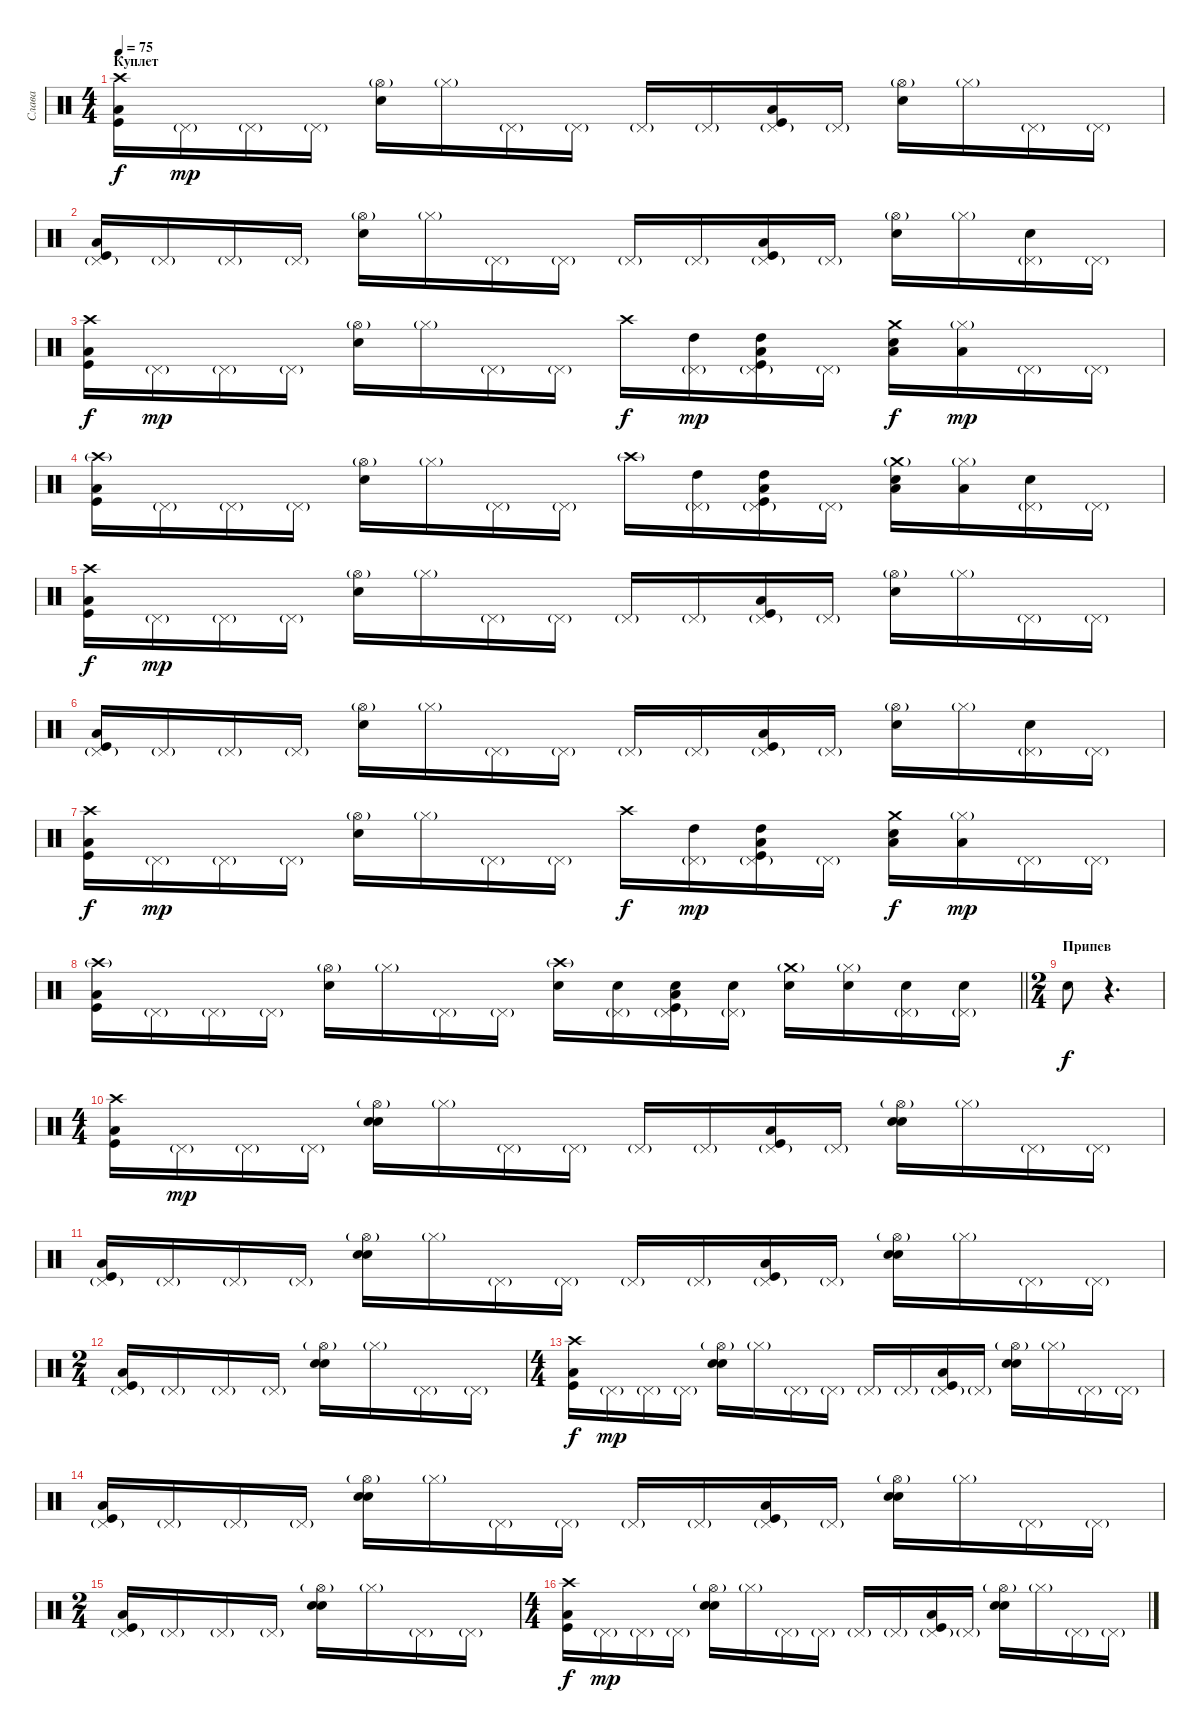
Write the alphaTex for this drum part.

\track ("Слава" "Слава") {instrument percussion}
\staff {score}
\articulation defaults
\ts (4 4)
\section ("" "Куплет")
\tempo 75
\clef neutral
\ks c
("Crash high (hit)" "Low Tom (hit)" "Kick (hit)").16{dy f} "Pedal Hi-Hat (hit)"{g}.16{dy mp} "Pedal Hi-Hat (hit)"{g}.16 "Pedal Hi-Hat (hit)"{g}.16 ("Hi-Hat (open)"{g} "Snare (hit) 2").16 "Hi-Hat (closed)"{g}.16 "Pedal Hi-Hat (hit)"{g}.16 "Pedal Hi-Hat (hit)"{g}.16 "Pedal Hi-Hat (hit)"{g}.16 "Pedal Hi-Hat (hit)"{g}.16 ("Pedal Hi-Hat (hit)"{g} "Low Tom (hit)" "Kick (hit)").16 "Pedal Hi-Hat (hit)"{g}.16 ("Hi-Hat (open)"{g} "Snare (hit) 2").16 "Hi-Hat (closed)"{g}.16 "Pedal Hi-Hat (hit)"{g}.16 "Pedal Hi-Hat (hit)"{g}.16 |
("Pedal Hi-Hat (hit)"{g} "Low Tom (hit)" "Kick (hit)").16 "Pedal Hi-Hat (hit)"{g}.16 "Pedal Hi-Hat (hit)"{g}.16 "Pedal Hi-Hat (hit)"{g}.16 ("Hi-Hat (open)"{g} "Snare (hit) 2").16 "Hi-Hat (closed)"{g}.16 "Pedal Hi-Hat (hit)"{g}.16 "Pedal Hi-Hat (hit)"{g}.16 "Pedal Hi-Hat (hit)"{g}.16 "Pedal Hi-Hat (hit)"{g}.16 ("Pedal Hi-Hat (hit)"{g} "Low Tom (hit)" "Kick (hit)").16 "Pedal Hi-Hat (hit)"{g}.16 ("Hi-Hat (open)"{g} "Snare (hit) 2").16 "Hi-Hat (closed)"{g}.16 ("Pedal Hi-Hat (hit)"{g} "Snare (hit) 2").16 "Pedal Hi-Hat (hit)"{g}.16 |
("Crash high (hit)" "Low Tom (hit)" "Kick (hit)").16{dy f} "Pedal Hi-Hat (hit)"{g}.16{dy mp} "Pedal Hi-Hat (hit)"{g}.16 "Pedal Hi-Hat (hit)"{g}.16 ("Hi-Hat (open)"{g} "Snare (hit) 2").16 "Hi-Hat (closed)"{g}.16 "Pedal Hi-Hat (hit)"{g}.16 "Pedal Hi-Hat (hit)"{g}.16 "Crash high (hit)".16{dy f} ("Pedal Hi-Hat (hit)"{g} "High Tom (hit)").16{dy mp} ("Pedal Hi-Hat (hit)"{g} "High Tom (hit)" "Low Tom (hit)" "Kick (hit)").16 "Pedal Hi-Hat (hit)"{g}.16 ("Crash medium (hit)" "Low Tom (hit)" "Snare (hit) 2").16{dy f} ("Hi-Hat (closed)"{g} "Low Tom (hit)").16{dy mp} "Pedal Hi-Hat (hit)"{g}.16 "Pedal Hi-Hat (hit)"{g}.16 |
("Crash high (hit)"{g} "Low Tom (hit)" "Kick (hit)").16 "Pedal Hi-Hat (hit)"{g}.16 "Pedal Hi-Hat (hit)"{g}.16 "Pedal Hi-Hat (hit)"{g}.16 ("Hi-Hat (open)"{g} "Snare (hit) 2").16 "Hi-Hat (closed)"{g}.16 "Pedal Hi-Hat (hit)"{g}.16 "Pedal Hi-Hat (hit)"{g}.16 "Crash high (hit)"{g}.16 ("Pedal Hi-Hat (hit)"{g} "High Tom (hit)").16 ("Pedal Hi-Hat (hit)"{g} "High Tom (hit)" "Low Tom (hit)" "Kick (hit)").16 "Pedal Hi-Hat (hit)"{g}.16 ("Crash medium (hit)"{g} "Low Tom (hit)" "Snare (hit) 2").16 ("Hi-Hat (closed)"{g} "Low Tom (hit)").16 ("Pedal Hi-Hat (hit)"{g} "Snare (hit) 2").16 "Pedal Hi-Hat (hit)"{g}.16 |
("Crash high (hit)" "Low Tom (hit)" "Kick (hit)").16{dy f} "Pedal Hi-Hat (hit)"{g}.16{dy mp} "Pedal Hi-Hat (hit)"{g}.16 "Pedal Hi-Hat (hit)"{g}.16 ("Hi-Hat (open)"{g} "Snare (hit) 2").16 "Hi-Hat (closed)"{g}.16 "Pedal Hi-Hat (hit)"{g}.16 "Pedal Hi-Hat (hit)"{g}.16 "Pedal Hi-Hat (hit)"{g}.16 "Pedal Hi-Hat (hit)"{g}.16 ("Pedal Hi-Hat (hit)"{g} "Low Tom (hit)" "Kick (hit)").16 "Pedal Hi-Hat (hit)"{g}.16 ("Hi-Hat (open)"{g} "Snare (hit) 2").16 "Hi-Hat (closed)"{g}.16 "Pedal Hi-Hat (hit)"{g}.16 "Pedal Hi-Hat (hit)"{g}.16 |
("Pedal Hi-Hat (hit)"{g} "Low Tom (hit)" "Kick (hit)").16 "Pedal Hi-Hat (hit)"{g}.16 "Pedal Hi-Hat (hit)"{g}.16 "Pedal Hi-Hat (hit)"{g}.16 ("Hi-Hat (open)"{g} "Snare (hit) 2").16 "Hi-Hat (closed)"{g}.16 "Pedal Hi-Hat (hit)"{g}.16 "Pedal Hi-Hat (hit)"{g}.16 "Pedal Hi-Hat (hit)"{g}.16 "Pedal Hi-Hat (hit)"{g}.16 ("Pedal Hi-Hat (hit)"{g} "Low Tom (hit)" "Kick (hit)").16 "Pedal Hi-Hat (hit)"{g}.16 ("Hi-Hat (open)"{g} "Snare (hit) 2").16 "Hi-Hat (closed)"{g}.16 ("Pedal Hi-Hat (hit)"{g} "Snare (hit) 2").16 "Pedal Hi-Hat (hit)"{g}.16 |
("Crash high (hit)" "Low Tom (hit)" "Kick (hit)").16{dy f} "Pedal Hi-Hat (hit)"{g}.16{dy mp} "Pedal Hi-Hat (hit)"{g}.16 "Pedal Hi-Hat (hit)"{g}.16 ("Hi-Hat (open)"{g} "Snare (hit) 2").16 "Hi-Hat (closed)"{g}.16 "Pedal Hi-Hat (hit)"{g}.16 "Pedal Hi-Hat (hit)"{g}.16 "Crash high (hit)".16{dy f} ("Pedal Hi-Hat (hit)"{g} "High Tom (hit)").16{dy mp} ("Pedal Hi-Hat (hit)"{g} "High Tom (hit)" "Low Tom (hit)" "Kick (hit)").16 "Pedal Hi-Hat (hit)"{g}.16 ("Crash medium (hit)" "Low Tom (hit)" "Snare (hit) 2").16{dy f} ("Hi-Hat (closed)"{g} "Low Tom (hit)").16{dy mp} "Pedal Hi-Hat (hit)"{g}.16 "Pedal Hi-Hat (hit)"{g}.16 |
\barLineRight lightlight
("Crash high (hit)"{g} "Low Tom (hit)" "Kick (hit)").16 "Pedal Hi-Hat (hit)"{g}.16 "Pedal Hi-Hat (hit)"{g}.16 "Pedal Hi-Hat (hit)"{g}.16 ("Hi-Hat (open)"{g} "Snare (hit) 2").16 "Hi-Hat (closed)"{g}.16 "Pedal Hi-Hat (hit)"{g}.16 "Pedal Hi-Hat (hit)"{g}.16 ("Crash high (hit)"{g} "Snare (hit) 2").16 ("Pedal Hi-Hat (hit)"{g} "Snare (hit) 2").16 ("Pedal Hi-Hat (hit)"{g} "Snare (hit) 2" "Low Tom (hit)" "Kick (hit)").16 ("Pedal Hi-Hat (hit)"{g} "Snare (hit) 2").16 ("Crash medium (hit)"{g} "Electric Snare (hit)").16 ("Hi-Hat (closed)"{g} "Electric Snare (hit)").16 ("Pedal Hi-Hat (hit)"{g} "Electric Snare (hit)").16 ("Pedal Hi-Hat (hit)"{g} "Electric Snare (hit)").16 |
\ts (2 4)
\section ("" "Припев")
"Electric Snare (hit)".8{dy f} r.4{d} |
\ts (4 4)
("Crash high (hit)" "Low Tom (hit)" "Kick (hit)").16 "Pedal Hi-Hat (hit)"{g}.16{dy mp} "Pedal Hi-Hat (hit)"{g}.16 "Pedal Hi-Hat (hit)"{g}.16 ("Hi-Hat (open)"{g} "Electric Snare (hit)" "Snare (hit) 2").16 "Hi-Hat (closed)"{g}.16 "Pedal Hi-Hat (hit)"{g}.16 "Pedal Hi-Hat (hit)"{g}.16 "Pedal Hi-Hat (hit)"{g}.16 "Pedal Hi-Hat (hit)"{g}.16 ("Pedal Hi-Hat (hit)"{g} "Low Tom (hit)" "Kick (hit)").16 "Pedal Hi-Hat (hit)"{g}.16 ("Hi-Hat (open)"{g} "Electric Snare (hit)" "Snare (hit) 2").16 "Hi-Hat (closed)"{g}.16 "Pedal Hi-Hat (hit)"{g}.16 "Pedal Hi-Hat (hit)"{g}.16 |
("Pedal Hi-Hat (hit)"{g} "Low Tom (hit)" "Kick (hit)").16 "Pedal Hi-Hat (hit)"{g}.16 "Pedal Hi-Hat (hit)"{g}.16 "Pedal Hi-Hat (hit)"{g}.16 ("Hi-Hat (open)"{g} "Electric Snare (hit)" "Snare (hit) 2").16 "Hi-Hat (closed)"{g}.16 "Pedal Hi-Hat (hit)"{g}.16 "Pedal Hi-Hat (hit)"{g}.16 "Pedal Hi-Hat (hit)"{g}.16 "Pedal Hi-Hat (hit)"{g}.16 ("Pedal Hi-Hat (hit)"{g} "Low Tom (hit)" "Kick (hit)").16 "Pedal Hi-Hat (hit)"{g}.16 ("Hi-Hat (open)"{g} "Electric Snare (hit)" "Snare (hit) 2").16 "Hi-Hat (closed)"{g}.16 "Pedal Hi-Hat (hit)"{g}.16 "Pedal Hi-Hat (hit)"{g}.16 |
\ts (2 4)
("Pedal Hi-Hat (hit)"{g} "Low Tom (hit)" "Kick (hit)").16 "Pedal Hi-Hat (hit)"{g}.16 "Pedal Hi-Hat (hit)"{g}.16 "Pedal Hi-Hat (hit)"{g}.16 ("Hi-Hat (open)"{g} "Electric Snare (hit)" "Snare (hit) 2").16 "Hi-Hat (closed)"{g}.16 "Pedal Hi-Hat (hit)"{g}.16 "Pedal Hi-Hat (hit)"{g}.16 |
\ts (4 4)
("Crash high (hit)" "Low Tom (hit)" "Kick (hit)").16{dy f} "Pedal Hi-Hat (hit)"{g}.16{dy mp} "Pedal Hi-Hat (hit)"{g}.16 "Pedal Hi-Hat (hit)"{g}.16 ("Hi-Hat (open)"{g} "Electric Snare (hit)" "Snare (hit) 2").16 "Hi-Hat (closed)"{g}.16 "Pedal Hi-Hat (hit)"{g}.16 "Pedal Hi-Hat (hit)"{g}.16 "Pedal Hi-Hat (hit)"{g}.16 "Pedal Hi-Hat (hit)"{g}.16 ("Pedal Hi-Hat (hit)"{g} "Low Tom (hit)" "Kick (hit)").16 "Pedal Hi-Hat (hit)"{g}.16 ("Hi-Hat (open)"{g} "Electric Snare (hit)" "Snare (hit) 2").16 "Hi-Hat (closed)"{g}.16 "Pedal Hi-Hat (hit)"{g}.16 "Pedal Hi-Hat (hit)"{g}.16 |
("Pedal Hi-Hat (hit)"{g} "Low Tom (hit)" "Kick (hit)").16 "Pedal Hi-Hat (hit)"{g}.16 "Pedal Hi-Hat (hit)"{g}.16 "Pedal Hi-Hat (hit)"{g}.16 ("Hi-Hat (open)"{g} "Electric Snare (hit)" "Snare (hit) 2").16 "Hi-Hat (closed)"{g}.16 "Pedal Hi-Hat (hit)"{g}.16 "Pedal Hi-Hat (hit)"{g}.16 "Pedal Hi-Hat (hit)"{g}.16 "Pedal Hi-Hat (hit)"{g}.16 ("Pedal Hi-Hat (hit)"{g} "Low Tom (hit)" "Kick (hit)").16 "Pedal Hi-Hat (hit)"{g}.16 ("Hi-Hat (open)"{g} "Electric Snare (hit)" "Snare (hit) 2").16 "Hi-Hat (closed)"{g}.16 "Pedal Hi-Hat (hit)"{g}.16 "Pedal Hi-Hat (hit)"{g}.16 |
\ts (2 4)
("Pedal Hi-Hat (hit)"{g} "Low Tom (hit)" "Kick (hit)").16 "Pedal Hi-Hat (hit)"{g}.16 "Pedal Hi-Hat (hit)"{g}.16 "Pedal Hi-Hat (hit)"{g}.16 ("Hi-Hat (open)"{g} "Electric Snare (hit)" "Snare (hit) 2").16 "Hi-Hat (closed)"{g}.16 "Pedal Hi-Hat (hit)"{g}.16 "Pedal Hi-Hat (hit)"{g}.16 |
\ts (4 4)
("Crash high (hit)" "Low Tom (hit)" "Kick (hit)").16{dy f} "Pedal Hi-Hat (hit)"{g}.16{dy mp} "Pedal Hi-Hat (hit)"{g}.16 "Pedal Hi-Hat (hit)"{g}.16 ("Hi-Hat (open)"{g} "Electric Snare (hit)" "Snare (hit) 2").16 "Hi-Hat (closed)"{g}.16 "Pedal Hi-Hat (hit)"{g}.16 "Pedal Hi-Hat (hit)"{g}.16 "Pedal Hi-Hat (hit)"{g}.16 "Pedal Hi-Hat (hit)"{g}.16 ("Pedal Hi-Hat (hit)"{g} "Low Tom (hit)" "Kick (hit)").16 "Pedal Hi-Hat (hit)"{g}.16 ("Hi-Hat (open)"{g} "Electric Snare (hit)" "Snare (hit) 2").16 "Hi-Hat (closed)"{g}.16 "Pedal Hi-Hat (hit)"{g}.16 "Pedal Hi-Hat (hit)"{g}.16
